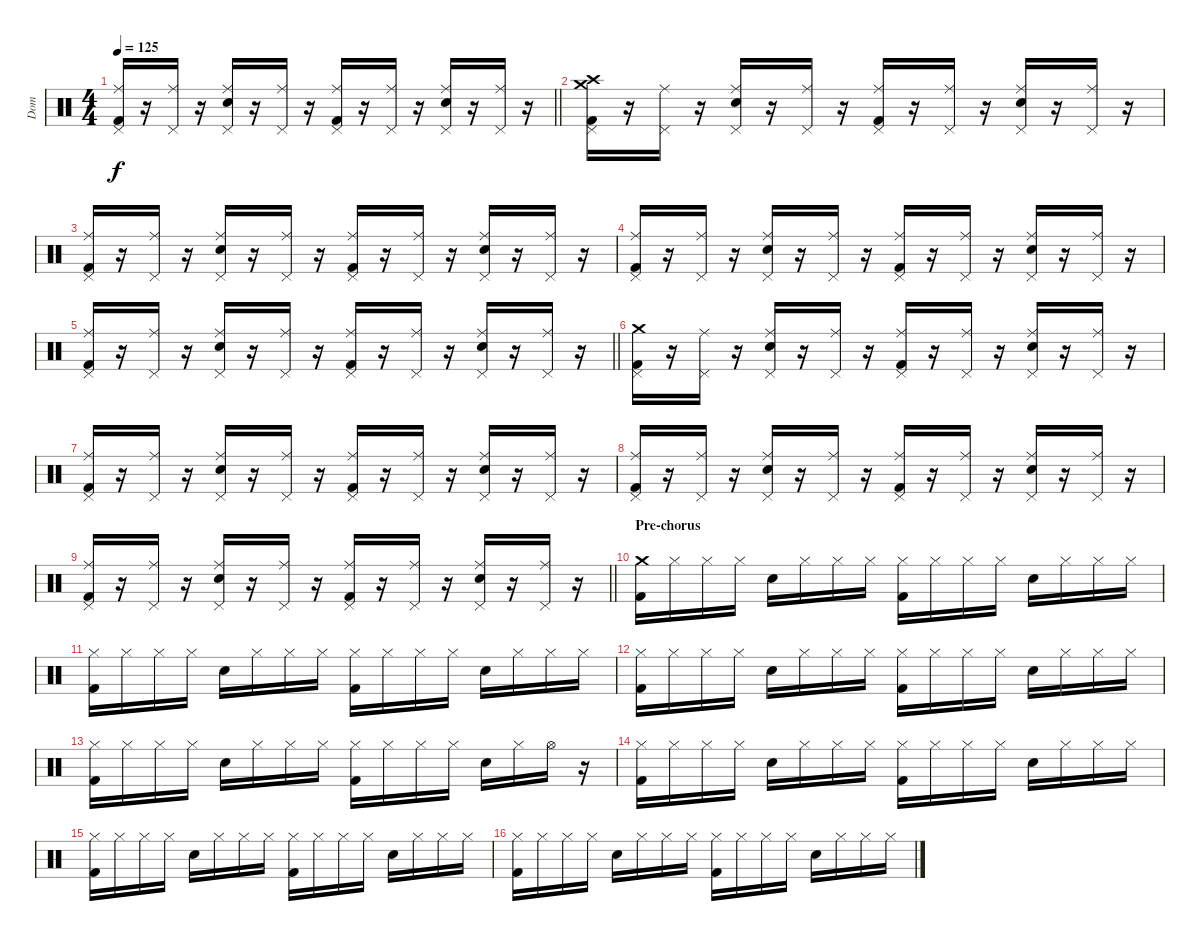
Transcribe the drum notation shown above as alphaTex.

\track ("Dom" "Dom") {instrument percussion}
\staff {score}
\articulation defaults
\ts (4 4)
\tempo 125
\clef neutral
\barLineRight lightlight
\ks c
("Ride (middle)" "Pedal Hi-Hat (hit)" "Kick (hit) 2").16{dy f} r.16 ("Ride (middle)" "Pedal Hi-Hat (hit)").16 r.16 ("Ride (middle)" "Snare (hit) 2" "Pedal Hi-Hat (hit)").16 r.16 ("Ride (middle)" "Pedal Hi-Hat (hit)").16 r.16 ("Ride (middle)" "Pedal Hi-Hat (hit)" "Kick (hit) 2").16 r.16 ("Ride (middle)" "Pedal Hi-Hat (hit)").16 r.16 ("Ride (middle)" "Snare (hit) 2" "Pedal Hi-Hat (hit)").16 r.16 ("Ride (middle)" "Pedal Hi-Hat (hit)").16 r.16 |
("Crash medium (hit)" "Crash high (hit)" "Pedal Hi-Hat (hit)" "Kick (hit) 2").16 r.16 ("Ride (middle)" "Pedal Hi-Hat (hit)").16 r.16 ("Ride (middle)" "Snare (hit) 2" "Pedal Hi-Hat (hit)").16 r.16 ("Ride (middle)" "Pedal Hi-Hat (hit)").16 r.16 ("Ride (middle)" "Pedal Hi-Hat (hit)" "Kick (hit) 2").16 r.16 ("Ride (middle)" "Pedal Hi-Hat (hit)").16 r.16 ("Ride (middle)" "Snare (hit) 2" "Pedal Hi-Hat (hit)").16 r.16 ("Ride (middle)" "Pedal Hi-Hat (hit)").16 r.16 |
("Ride (middle)" "Pedal Hi-Hat (hit)" "Kick (hit) 2").16 r.16 ("Ride (middle)" "Pedal Hi-Hat (hit)").16 r.16 ("Ride (middle)" "Snare (hit) 2" "Pedal Hi-Hat (hit)").16 r.16 ("Ride (middle)" "Pedal Hi-Hat (hit)").16 r.16 ("Ride (middle)" "Pedal Hi-Hat (hit)" "Kick (hit) 2").16 r.16 ("Ride (middle)" "Pedal Hi-Hat (hit)").16 r.16 ("Ride (middle)" "Snare (hit) 2" "Pedal Hi-Hat (hit)").16 r.16 ("Ride (middle)" "Pedal Hi-Hat (hit)").16 r.16 |
("Ride (middle)" "Pedal Hi-Hat (hit)" "Kick (hit) 2").16 r.16 ("Ride (middle)" "Pedal Hi-Hat (hit)").16 r.16 ("Ride (middle)" "Snare (hit) 2" "Pedal Hi-Hat (hit)").16 r.16 ("Ride (middle)" "Pedal Hi-Hat (hit)").16 r.16 ("Ride (middle)" "Pedal Hi-Hat (hit)" "Kick (hit) 2").16 r.16 ("Ride (middle)" "Pedal Hi-Hat (hit)").16 r.16 ("Ride (middle)" "Snare (hit) 2" "Pedal Hi-Hat (hit)").16 r.16 ("Ride (middle)" "Pedal Hi-Hat (hit)").16 r.16 |
\barLineRight lightlight
("Ride (middle)" "Pedal Hi-Hat (hit)" "Kick (hit) 2").16 r.16 ("Ride (middle)" "Pedal Hi-Hat (hit)").16 r.16 ("Ride (middle)" "Snare (hit) 2" "Pedal Hi-Hat (hit)").16 r.16 ("Ride (middle)" "Pedal Hi-Hat (hit)").16 r.16 ("Ride (middle)" "Pedal Hi-Hat (hit)" "Kick (hit) 2").16 r.16 ("Ride (middle)" "Pedal Hi-Hat (hit)").16 r.16 ("Ride (middle)" "Snare (hit) 2" "Pedal Hi-Hat (hit)").16 r.16 ("Ride (middle)" "Pedal Hi-Hat (hit)").16 r.16 |
("Crash medium (hit)" "Pedal Hi-Hat (hit)" "Kick (hit) 2").16 r.16 ("Ride (middle)" "Pedal Hi-Hat (hit)").16 r.16 ("Ride (middle)" "Snare (hit) 2" "Pedal Hi-Hat (hit)").16 r.16 ("Ride (middle)" "Pedal Hi-Hat (hit)").16 r.16 ("Ride (middle)" "Pedal Hi-Hat (hit)" "Kick (hit) 2").16 r.16 ("Ride (middle)" "Pedal Hi-Hat (hit)").16 r.16 ("Ride (middle)" "Snare (hit) 2" "Pedal Hi-Hat (hit)").16 r.16 ("Ride (middle)" "Pedal Hi-Hat (hit)").16 r.16 |
("Ride (middle)" "Pedal Hi-Hat (hit)" "Kick (hit) 2").16 r.16 ("Ride (middle)" "Pedal Hi-Hat (hit)").16 r.16 ("Ride (middle)" "Snare (hit) 2" "Pedal Hi-Hat (hit)").16 r.16 ("Ride (middle)" "Pedal Hi-Hat (hit)").16 r.16 ("Ride (middle)" "Pedal Hi-Hat (hit)" "Kick (hit) 2").16 r.16 ("Ride (middle)" "Pedal Hi-Hat (hit)").16 r.16 ("Ride (middle)" "Snare (hit) 2" "Pedal Hi-Hat (hit)").16 r.16 ("Ride (middle)" "Pedal Hi-Hat (hit)").16 r.16 |
("Ride (middle)" "Pedal Hi-Hat (hit)" "Kick (hit) 2").16 r.16 ("Ride (middle)" "Pedal Hi-Hat (hit)").16 r.16 ("Ride (middle)" "Snare (hit) 2" "Pedal Hi-Hat (hit)").16 r.16 ("Ride (middle)" "Pedal Hi-Hat (hit)").16 r.16 ("Ride (middle)" "Pedal Hi-Hat (hit)" "Kick (hit) 2").16 r.16 ("Ride (middle)" "Pedal Hi-Hat (hit)").16 r.16 ("Ride (middle)" "Snare (hit) 2" "Pedal Hi-Hat (hit)").16 r.16 ("Ride (middle)" "Pedal Hi-Hat (hit)").16 r.16 |
\barLineRight lightlight
("Ride (middle)" "Pedal Hi-Hat (hit)" "Kick (hit) 2").16 r.16 ("Ride (middle)" "Pedal Hi-Hat (hit)").16 r.16 ("Ride (middle)" "Snare (hit) 2" "Pedal Hi-Hat (hit)").16 r.16 ("Ride (middle)" "Pedal Hi-Hat (hit)").16 r.16 ("Ride (middle)" "Pedal Hi-Hat (hit)" "Kick (hit) 2").16 r.16 ("Ride (middle)" "Pedal Hi-Hat (hit)").16 r.16 ("Ride (middle)" "Snare (hit) 2" "Pedal Hi-Hat (hit)").16 r.16 ("Ride (middle)" "Pedal Hi-Hat (hit)").16 r.16 |
\section ("" "Pre-chorus")
("Crash medium (hit)" "Kick (hit) 2").16 "Hi-Hat (closed)".16 "Hi-Hat (closed)".16 "Hi-Hat (closed)".16 "Snare (hit) 2".16 "Hi-Hat (closed)".16 "Hi-Hat (closed)".16 "Hi-Hat (closed)".16 ("Hi-Hat (closed)" "Kick (hit) 2").16 "Hi-Hat (closed)".16 "Hi-Hat (closed)".16 "Hi-Hat (closed)".16 "Snare (hit) 2".16 "Hi-Hat (closed)".16 "Hi-Hat (closed)".16 "Hi-Hat (closed)".16 |
("Hi-Hat (closed)" "Kick (hit) 2").16 "Hi-Hat (closed)".16 "Hi-Hat (closed)".16 "Hi-Hat (closed)".16 "Snare (hit) 2".16 "Hi-Hat (closed)".16 "Hi-Hat (closed)".16 "Hi-Hat (closed)".16 ("Hi-Hat (closed)" "Kick (hit) 2").16 "Hi-Hat (closed)".16 "Hi-Hat (closed)".16 "Hi-Hat (closed)".16 "Snare (hit) 2".16 "Hi-Hat (closed)".16 "Hi-Hat (closed)".16 "Hi-Hat (closed)".16 |
("Hi-Hat (closed)" "Kick (hit) 2").16 "Hi-Hat (closed)".16 "Hi-Hat (closed)".16 "Hi-Hat (closed)".16 "Snare (hit) 2".16 "Hi-Hat (closed)".16 "Hi-Hat (closed)".16 "Hi-Hat (closed)".16 ("Hi-Hat (closed)" "Kick (hit) 2").16 "Hi-Hat (closed)".16 "Hi-Hat (closed)".16 "Hi-Hat (closed)".16 "Snare (hit) 2".16 "Hi-Hat (closed)".16 "Hi-Hat (closed)".16 "Hi-Hat (closed)".16 |
("Hi-Hat (closed)" "Kick (hit) 2").16 "Hi-Hat (closed)".16 "Hi-Hat (closed)".16 "Hi-Hat (closed)".16 "Snare (hit) 2".16 "Hi-Hat (closed)".16 "Hi-Hat (closed)".16 "Hi-Hat (closed)".16 ("Hi-Hat (closed)" "Kick (hit) 2").16 "Hi-Hat (closed)".16 "Hi-Hat (closed)".16 "Hi-Hat (closed)".16 "Snare (hit) 2".16 "Hi-Hat (closed)".16 "Hi-Hat (open)".16 r.16 |
("Hi-Hat (closed)" "Kick (hit) 2").16 "Hi-Hat (closed)".16 "Hi-Hat (closed)".16 "Hi-Hat (closed)".16 "Snare (hit) 2".16 "Hi-Hat (closed)".16 "Hi-Hat (closed)".16 "Hi-Hat (closed)".16 ("Hi-Hat (closed)" "Kick (hit) 2").16 "Hi-Hat (closed)".16 "Hi-Hat (closed)".16 "Hi-Hat (closed)".16 "Snare (hit) 2".16 "Hi-Hat (closed)".16 "Hi-Hat (closed)".16 "Hi-Hat (closed)".16 |
("Hi-Hat (closed)" "Kick (hit) 2").16 "Hi-Hat (closed)".16 "Hi-Hat (closed)".16 "Hi-Hat (closed)".16 "Snare (hit) 2".16 "Hi-Hat (closed)".16 "Hi-Hat (closed)".16 "Hi-Hat (closed)".16 ("Hi-Hat (closed)" "Kick (hit) 2").16 "Hi-Hat (closed)".16 "Hi-Hat (closed)".16 "Hi-Hat (closed)".16 "Snare (hit) 2".16 "Hi-Hat (closed)".16 "Hi-Hat (closed)".16 "Hi-Hat (closed)".16 |
("Hi-Hat (closed)" "Kick (hit) 2").16 "Hi-Hat (closed)".16 "Hi-Hat (closed)".16 "Hi-Hat (closed)".16 "Snare (hit) 2".16 "Hi-Hat (closed)".16 "Hi-Hat (closed)".16 "Hi-Hat (closed)".16 ("Hi-Hat (closed)" "Kick (hit) 2").16 "Hi-Hat (closed)".16 "Hi-Hat (closed)".16 "Hi-Hat (closed)".16 "Snare (hit) 2".16 "Hi-Hat (closed)".16 "Hi-Hat (closed)".16 "Hi-Hat (closed)".16
